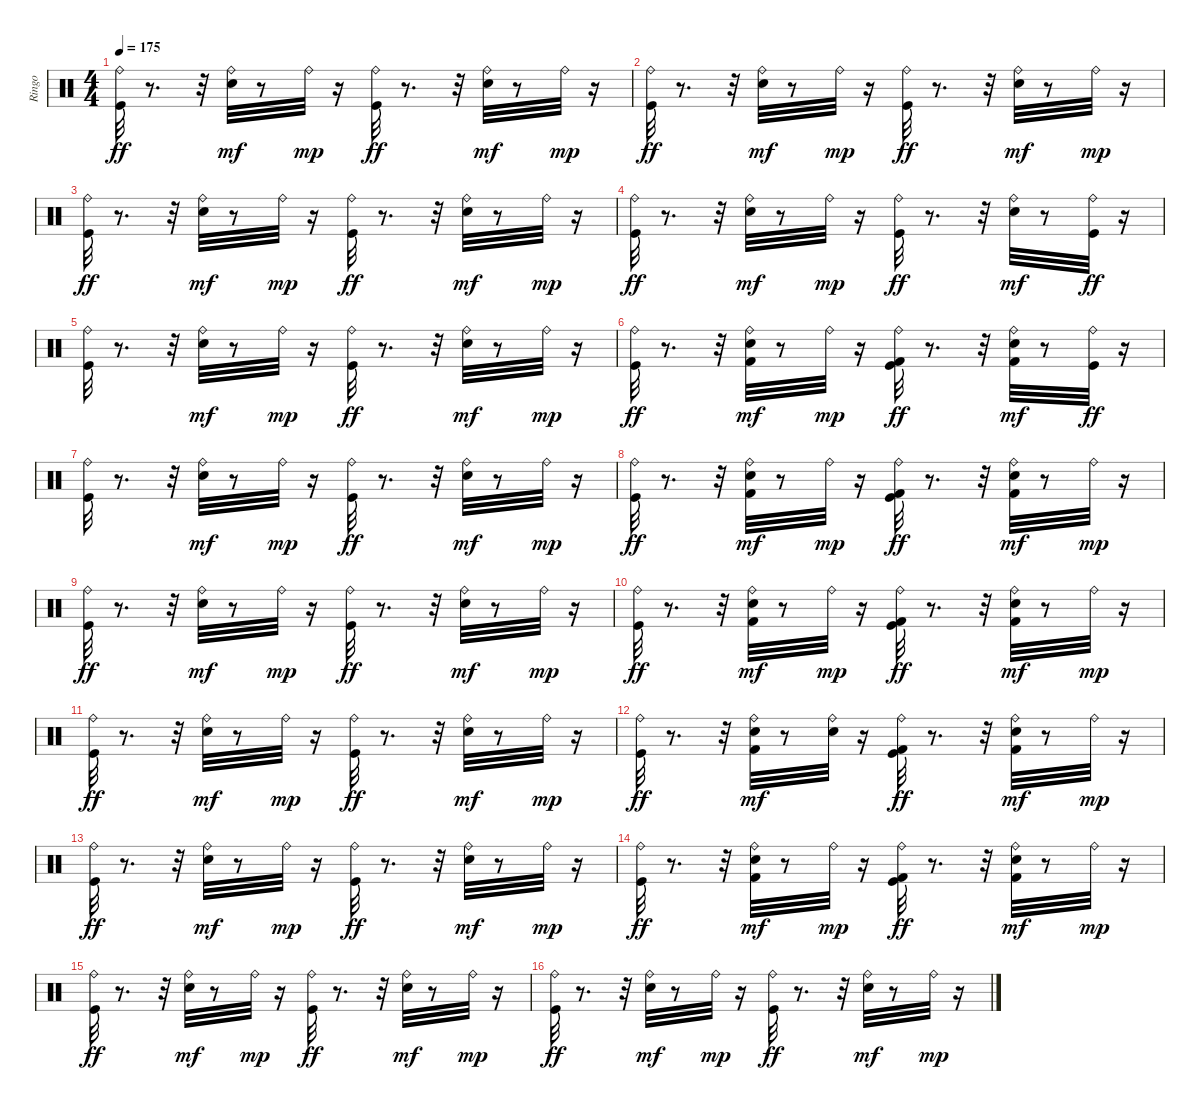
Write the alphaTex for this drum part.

\track ("Ringo" "Ringo") {instrument percussion}
\staff {score}
\articulation defaults
\ts (4 4)
\tempo 175
\clef neutral
\ks c
("Ride (bell)" "Kick (hit)").32{dy ff} r.8{d} r.32 ("Ride (bell)" "Snare (hit) 2").32{dy mf} r.8 "Ride (bell)".32{dy mp} r.16 ("Ride (bell)" "Kick (hit)").32{dy ff} r.8{d} r.32 ("Ride (bell)" "Snare (hit) 2").32{dy mf} r.8 "Ride (bell)".32{dy mp} r.16 |
("Ride (bell)" "Kick (hit)").32{dy ff} r.8{d} r.32 ("Ride (bell)" "Snare (hit) 2").32{dy mf} r.8 "Ride (bell)".32{dy mp} r.16 ("Ride (bell)" "Kick (hit)").32{dy ff} r.8{d} r.32 ("Ride (bell)" "Snare (hit) 2").32{dy mf} r.8 "Ride (bell)".32{dy mp} r.16 |
("Ride (bell)" "Kick (hit)").32{dy ff} r.8{d} r.32 ("Ride (bell)" "Snare (hit) 2").32{dy mf} r.8 "Ride (bell)".32{dy mp} r.16 ("Ride (bell)" "Kick (hit)").32{dy ff} r.8{d} r.32 ("Ride (bell)" "Snare (hit) 2").32{dy mf} r.8 "Ride (bell)".32{dy mp} r.16 |
("Ride (bell)" "Kick (hit)").32{dy ff} r.8{d} r.32 ("Ride (bell)" "Snare (hit) 2").32{dy mf} r.8 "Ride (bell)".32{dy mp} r.16 ("Ride (bell)" "Kick (hit)").32{dy ff} r.8{d} r.32 ("Ride (bell)" "Snare (hit) 2").32{dy mf} r.8 ("Ride (bell)" "Kick (hit)").32{dy ff} r.16 |
("Ride (bell)" "Kick (hit)").32 r.8{d} r.32 ("Ride (bell)" "Snare (hit) 2").32{dy mf} r.8 "Ride (bell)".32{dy mp} r.16 ("Ride (bell)" "Kick (hit)").32{dy ff} r.8{d} r.32 ("Ride (bell)" "Snare (hit) 2").32{dy mf} r.8 "Ride (bell)".32{dy mp} r.16 |
("Ride (bell)" "Kick (hit)").32{dy ff} r.8{d} r.32 ("Ride (bell)" "Snare (hit) 2" "Kick (hit) 2").32{dy mf} r.8 "Ride (bell)".32{dy mp} r.16 ("Ride (bell)" "Kick (hit)" "Kick (hit) 2").32{dy ff} r.8{d} r.32 ("Ride (bell)" "Snare (hit) 2" "Kick (hit) 2").32{dy mf} r.8 ("Ride (bell)" "Kick (hit)").32{dy ff} r.16 |
("Ride (bell)" "Kick (hit)").32 r.8{d} r.32 ("Ride (bell)" "Snare (hit) 2").32{dy mf} r.8 "Ride (bell)".32{dy mp} r.16 ("Ride (bell)" "Kick (hit)").32{dy ff} r.8{d} r.32 ("Ride (bell)" "Snare (hit) 2").32{dy mf} r.8 "Ride (bell)".32{dy mp} r.16 |
("Ride (bell)" "Kick (hit)").32{dy ff} r.8{d} r.32 ("Ride (bell)" "Snare (hit) 2" "Kick (hit) 2").32{dy mf} r.8 "Ride (bell)".32{dy mp} r.16 ("Ride (bell)" "Kick (hit)" "Kick (hit) 2").32{dy ff} r.8{d} r.32 ("Ride (bell)" "Snare (hit) 2" "Kick (hit) 2").32{dy mf} r.8 "Ride (bell)".32{dy mp} r.16 |
("Ride (bell)" "Kick (hit)").32{dy ff} r.8{d} r.32 ("Ride (bell)" "Snare (hit) 2").32{dy mf} r.8 "Ride (bell)".32{dy mp} r.16 ("Ride (bell)" "Kick (hit)").32{dy ff} r.8{d} r.32 ("Ride (bell)" "Snare (hit) 2").32{dy mf} r.8 "Ride (bell)".32{dy mp} r.16 |
("Ride (bell)" "Kick (hit)").32{dy ff} r.8{d} r.32 ("Ride (bell)" "Snare (hit) 2" "Kick (hit) 2").32{dy mf} r.8 "Ride (bell)".32{dy mp} r.16 ("Ride (bell)" "Kick (hit)" "Kick (hit) 2").32{dy ff} r.8{d} r.32 ("Ride (bell)" "Snare (hit) 2" "Kick (hit) 2").32{dy mf} r.8 "Ride (bell)".32{dy mp} r.16 |
("Ride (bell)" "Kick (hit)").32{dy ff} r.8{d} r.32 ("Ride (bell)" "Snare (hit) 2").32{dy mf} r.8 "Ride (bell)".32{dy mp} r.16 ("Ride (bell)" "Kick (hit)").32{dy ff} r.8{d} r.32 ("Ride (bell)" "Snare (hit) 2").32{dy mf} r.8 "Ride (bell)".32{dy mp} r.16 |
("Ride (bell)" "Kick (hit)").32{dy ff} r.8{d} r.32 ("Ride (bell)" "Snare (hit) 2" "Kick (hit) 2").32{dy mf} r.8 ("Ride (bell)" "Snare (hit) 2").32 r.16 ("Ride (bell)" "Kick (hit)" "Kick (hit) 2").32{dy ff} r.8{d} r.32 ("Ride (bell)" "Snare (hit) 2" "Kick (hit) 2").32{dy mf} r.8 "Ride (bell)".32{dy mp} r.16 |
("Ride (bell)" "Kick (hit)").32{dy ff} r.8{d} r.32 ("Ride (bell)" "Snare (hit) 2").32{dy mf} r.8 "Ride (bell)".32{dy mp} r.16 ("Ride (bell)" "Kick (hit)").32{dy ff} r.8{d} r.32 ("Ride (bell)" "Snare (hit) 2").32{dy mf} r.8 "Ride (bell)".32{dy mp} r.16 |
("Ride (bell)" "Kick (hit)").32{dy ff} r.8{d} r.32 ("Ride (bell)" "Snare (hit) 2" "Kick (hit) 2").32{dy mf} r.8 "Ride (bell)".32{dy mp} r.16 ("Ride (bell)" "Kick (hit)" "Kick (hit) 2").32{dy ff} r.8{d} r.32 ("Ride (bell)" "Snare (hit) 2" "Kick (hit) 2").32{dy mf} r.8 "Ride (bell)".32{dy mp} r.16 |
("Ride (bell)" "Kick (hit)").32{dy ff} r.8{d} r.32 ("Ride (bell)" "Snare (hit) 2").32{dy mf} r.8 "Ride (bell)".32{dy mp} r.16 ("Ride (bell)" "Kick (hit)").32{dy ff} r.8{d} r.32 ("Ride (bell)" "Snare (hit) 2").32{dy mf} r.8 "Ride (bell)".32{dy mp} r.16 |
("Ride (bell)" "Kick (hit)").32{dy ff} r.8{d} r.32 ("Ride (bell)" "Snare (hit) 2").32{dy mf} r.8 "Ride (bell)".32{dy mp} r.16 ("Ride (bell)" "Kick (hit)").32{dy ff} r.8{d} r.32 ("Ride (bell)" "Snare (hit) 2").32{dy mf} r.8 "Ride (bell)".32{dy mp} r.16
